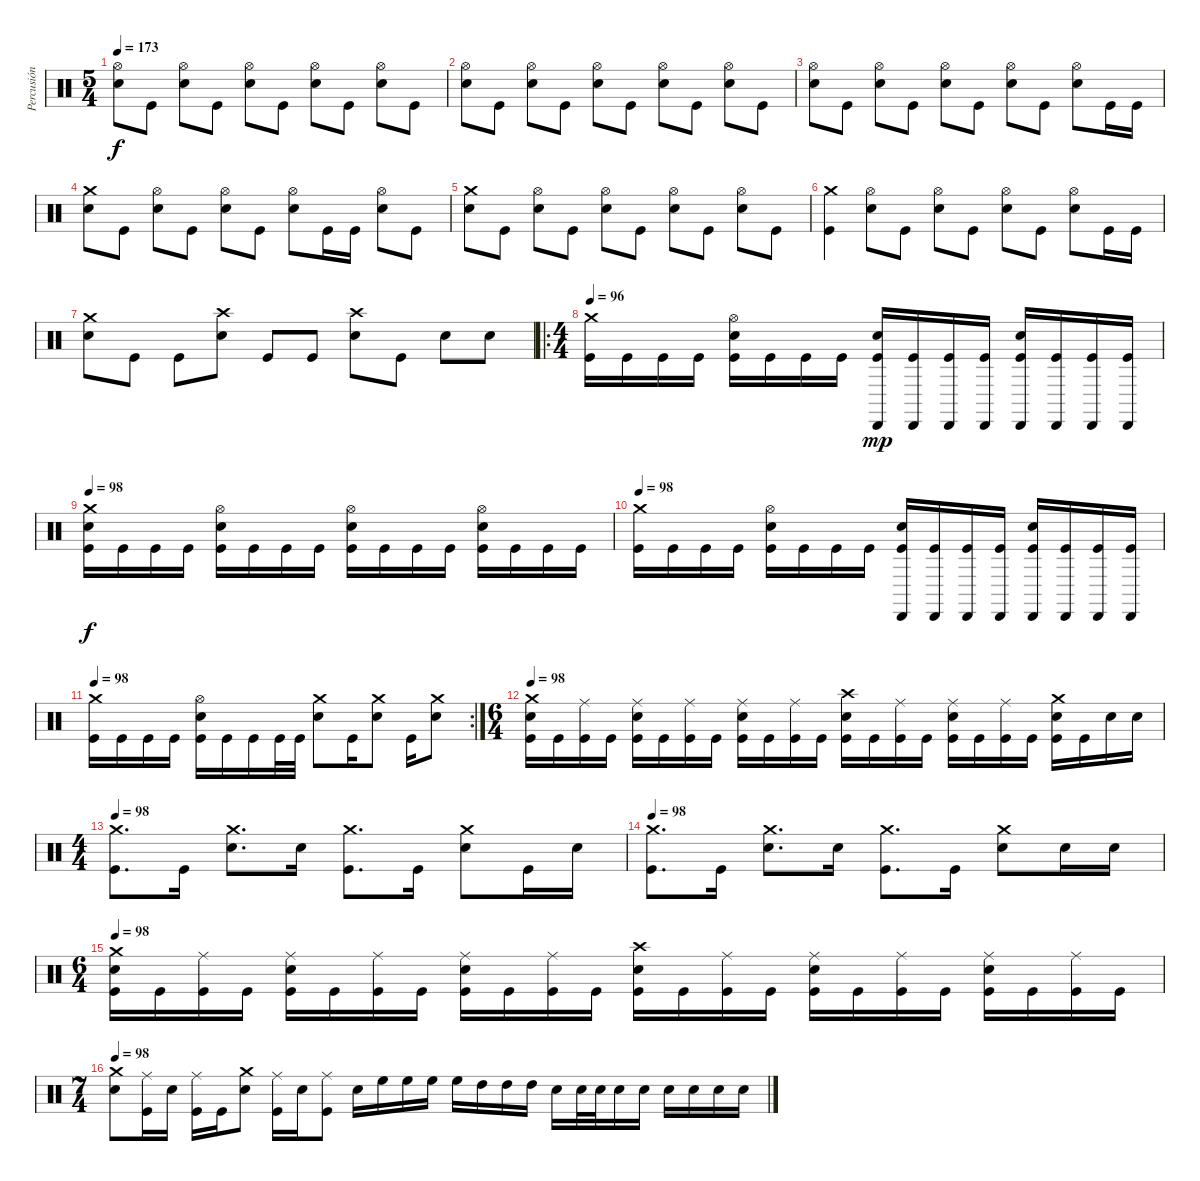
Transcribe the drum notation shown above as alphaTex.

\track ("Percusión" "Percusión") {instrument percussion}
\staff {score}
\articulation defaults
\ts (5 4)
\tempo 173
\clef neutral
\ks c
("Hi-Hat (open)" "Electric Snare (hit)").8{dy f} "Kick (hit)".8 ("Hi-Hat (open)" "Electric Snare (hit)").8 "Kick (hit)".8 ("Hi-Hat (open)" "Electric Snare (hit)").8 "Kick (hit)".8 ("Hi-Hat (open)" "Electric Snare (hit)").8 "Kick (hit)".8 ("Hi-Hat (open)" "Electric Snare (hit)").8 "Kick (hit)".8 |
("Hi-Hat (open)" "Electric Snare (hit)").8 "Kick (hit)".8 ("Hi-Hat (open)" "Electric Snare (hit)").8 "Kick (hit)".8 ("Hi-Hat (open)" "Electric Snare (hit)").8 "Kick (hit)".8 ("Hi-Hat (open)" "Electric Snare (hit)").8 "Kick (hit)".8 ("Hi-Hat (open)" "Electric Snare (hit)").8 "Kick (hit)".8 |
("Hi-Hat (open)" "Electric Snare (hit)").8 "Kick (hit)".8 ("Hi-Hat (open)" "Electric Snare (hit)").8 "Kick (hit)".8 ("Hi-Hat (open)" "Electric Snare (hit)").8 "Kick (hit)".8 ("Hi-Hat (open)" "Electric Snare (hit)").8 "Kick (hit)".8 ("Hi-Hat (open)" "Electric Snare (hit)").8 "Kick (hit)".16 "Kick (hit)".16 |
("Crash medium (hit)" "Electric Snare (hit)").8 "Kick (hit)".8 ("Hi-Hat (open)" "Electric Snare (hit)").8 "Kick (hit)".8 ("Hi-Hat (open)" "Electric Snare (hit)").8 "Kick (hit)".8 ("Hi-Hat (open)" "Electric Snare (hit)").8 "Kick (hit)".16 "Kick (hit)".16 ("Hi-Hat (open)" "Electric Snare (hit)").8 "Kick (hit)".8 |
("Crash medium (hit)" "Electric Snare (hit)").8 "Kick (hit)".8 ("Hi-Hat (open)" "Electric Snare (hit)").8 "Kick (hit)".8 ("Hi-Hat (open)" "Electric Snare (hit)").8 "Kick (hit)".8 ("Hi-Hat (open)" "Electric Snare (hit)").8 "Kick (hit)".8 ("Hi-Hat (open)" "Electric Snare (hit)").8 "Kick (hit)".8 |
("Crash medium (hit)" "Kick (hit)").4 ("Hi-Hat (open)" "Electric Snare (hit)").8 "Kick (hit)".8 ("Hi-Hat (open)" "Electric Snare (hit)").8 "Kick (hit)".8 ("Hi-Hat (open)" "Electric Snare (hit)").8 "Kick (hit)".8 ("Hi-Hat (open)" "Electric Snare (hit)").8 "Kick (hit)".16 "Kick (hit)".16 |
("Crash medium (hit)" "Electric Snare (hit)").8 "Kick (hit)".8 "Kick (hit)".8 ("Crash high (hit)" "Electric Snare (hit)").8 "Kick (hit)".8 "Kick (hit)".8 ("Crash high (hit)" "Electric Snare (hit)").8 "Kick (hit)".8 "Electric Snare (hit)".8 "Electric Snare (hit)".8 |
\ro
\ts (4 4)
\tempo 96
("Crash medium (hit)" "Kick (hit)").16 "Kick (hit)".16 "Kick (hit)".16 "Kick (hit)".16 ("Hi-Hat (open)" "Electric Snare (hit)" "Kick (hit)").16 "Kick (hit)".16 "Kick (hit)".16 "Kick (hit)".16 ("Cabasa (hit)" "Electric Snare (hit)" "Kick (hit)").16{dy mp} ("Cabasa (hit)" "Kick (hit)").16 ("Cabasa (hit)" "Kick (hit)").16 ("Cabasa (hit)" "Kick (hit)").16 ("Cabasa (hit)" "Electric Snare (hit)" "Kick (hit)").16 ("Cabasa (hit)" "Kick (hit)").16 ("Cabasa (hit)" "Kick (hit)").16 ("Cabasa (hit)" "Kick (hit)").16 |
\tempo 98
("Crash medium (hit)" "Electric Snare (hit)" "Kick (hit)").16{dy f} "Kick (hit)".16 "Kick (hit)".16 "Kick (hit)".16 ("Hi-Hat (open)" "Electric Snare (hit)" "Kick (hit)").16 "Kick (hit)".16 "Kick (hit)".16 "Kick (hit)".16 ("Hi-Hat (open)" "Electric Snare (hit)" "Kick (hit)").16 "Kick (hit)".16 "Kick (hit)".16 "Kick (hit)".16 ("Hi-Hat (open)" "Electric Snare (hit)" "Kick (hit)").16 "Kick (hit)".16 "Kick (hit)".16 "Kick (hit)".16 |
\tempo 98
("Crash medium (hit)" "Kick (hit)").16 "Kick (hit)".16 "Kick (hit)".16 "Kick (hit)".16 ("Hi-Hat (open)" "Electric Snare (hit)" "Kick (hit)").16 "Kick (hit)".16 "Kick (hit)".16 "Kick (hit)".16 ("Cabasa (hit)" "Electric Snare (hit)" "Kick (hit)").16 ("Cabasa (hit)" "Kick (hit)").16 ("Cabasa (hit)" "Kick (hit)").16 ("Cabasa (hit)" "Kick (hit)").16 ("Cabasa (hit)" "Electric Snare (hit)" "Kick (hit)").16 ("Cabasa (hit)" "Kick (hit)").16 ("Cabasa (hit)" "Kick (hit)").16 ("Cabasa (hit)" "Kick (hit)").16 |
\rc 2
\tempo 98
("Crash medium (hit)" "Kick (hit)").16 "Kick (hit)".16 "Kick (hit)".16 "Kick (hit)".16 ("Hi-Hat (open)" "Electric Snare (hit)" "Kick (hit)").16 "Kick (hit)".16 "Kick (hit)".16 "Kick (hit)".32 "Kick (hit)".32 ("Crash medium (hit)" "Electric Snare (hit)").8 "Kick (hit)".16 ("Crash medium (hit)" "Electric Snare (hit)").8 "Kick (hit)".16 ("Crash medium (hit)" "Electric Snare (hit)").8 |
\ts (6 4)
\tempo 98
("Crash medium (hit)" "Electric Snare (hit)" "Kick (hit)").16 "Kick (hit)".16 ("Ride (middle)" "Kick (hit)").16 "Kick (hit)".16 ("Ride (middle)" "Electric Snare (hit)" "Kick (hit)").16 "Kick (hit)".16 ("Ride (middle)" "Kick (hit)").16 "Kick (hit)".16 ("Ride (middle)" "Electric Snare (hit)" "Kick (hit)").16 "Kick (hit)".16 ("Ride (middle)" "Kick (hit)").16 "Kick (hit)".16 ("Crash high (hit)" "Electric Snare (hit)" "Kick (hit)").16 "Kick (hit)".16 ("Ride (middle)" "Kick (hit)").16 "Kick (hit)".16 ("Ride (middle)" "Electric Snare (hit)" "Kick (hit)").16 "Kick (hit)".16 ("Ride (middle)" "Kick (hit)").16 "Kick (hit)".16 ("Crash medium (hit)" "Electric Snare (hit)" "Kick (hit)").16 "Kick (hit)".16 "Electric Snare (hit)".16 "Electric Snare (hit)".16 |
\ts (4 4)
\tempo 98
("Crash medium (hit)" "Kick (hit)").8{d} "Kick (hit)".16 ("Crash medium (hit)" "Electric Snare (hit)").8{d} "Electric Snare (hit)".16 ("Crash medium (hit)" "Kick (hit)").8{d} "Kick (hit)".16 ("Crash medium (hit)" "Electric Snare (hit)").8 "Kick (hit)".16 "Electric Snare (hit)".16 |
\tempo 98
("Crash medium (hit)" "Kick (hit)").8{d} "Kick (hit)".16 ("Crash medium (hit)" "Electric Snare (hit)").8{d} "Electric Snare (hit)".16 ("Crash medium (hit)" "Kick (hit)").8{d} "Kick (hit)".16 ("Crash medium (hit)" "Electric Snare (hit)").8 "Electric Snare (hit)".16 "Electric Snare (hit)".16 |
\ts (6 4)
\tempo 98
("Crash medium (hit)" "Electric Snare (hit)" "Kick (hit)").16 "Kick (hit)".16 ("Ride (middle)" "Kick (hit)").16 "Kick (hit)".16 ("Ride (middle)" "Electric Snare (hit)" "Kick (hit)").16 "Kick (hit)".16 ("Ride (middle)" "Kick (hit)").16 "Kick (hit)".16 ("Ride (middle)" "Electric Snare (hit)" "Kick (hit)").16 "Kick (hit)".16 ("Ride (middle)" "Kick (hit)").16 "Kick (hit)".16 ("Crash high (hit)" "Electric Snare (hit)" "Kick (hit)").16 "Kick (hit)".16 ("Ride (middle)" "Kick (hit)").16 "Kick (hit)".16 ("Ride (middle)" "Electric Snare (hit)" "Kick (hit)").16 "Kick (hit)".16 ("Ride (middle)" "Kick (hit)").16 "Kick (hit)".16 ("Ride (middle)" "Electric Snare (hit)" "Kick (hit)").16 "Kick (hit)".16 ("Ride (middle)" "Kick (hit)").16 "Kick (hit)".16 |
\ts (7 4)
\tempo 98
("Crash medium (hit)" "Electric Snare (hit)").8 ("Ride (middle)" "Kick (hit)").16 "Electric Snare (hit)".16 ("Ride (middle)" "Kick (hit)").16 "Kick (hit)".16 ("Crash medium (hit)" "Electric Snare (hit)").8 ("Ride (middle)" "Kick (hit)").16 "Electric Snare (hit)".16 ("Ride (middle)" "Kick (hit)").8 "Electric Snare (hit)".16 "High Floor Tom (hit)".16 "High Floor Tom (hit)".16 "High Floor Tom (hit)".16 "High Floor Tom (hit)".16 "High Tom (hit)".16 "High Tom (hit)".16 "High Tom (hit)".16 "Electric Snare (hit)".16 "Electric Snare (hit)".32 "Electric Snare (hit)".32 "Electric Snare (hit)".16 "Electric Snare (hit)".16 "Electric Snare (hit)".16 "Electric Snare (hit)".16 "Electric Snare (hit)".16 "Electric Snare (hit)".16
